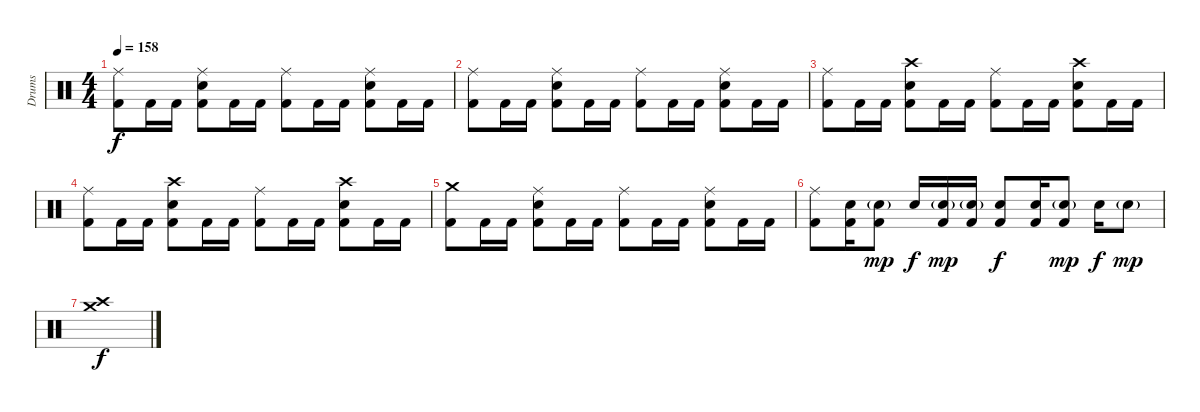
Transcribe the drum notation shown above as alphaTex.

\track ("Drums" "Drums") {instrument percussion}
\staff {score}
\articulation defaults
\ts (4 4)
\tempo 158
\clef neutral
\ks c
("Ride (middle)" "Kick (hit) 2").8{dy f} "Kick (hit) 2".16 "Kick (hit) 2".16 ("Ride (middle)" "Electric Snare (hit)" "Kick (hit) 2").8 "Kick (hit) 2".16 "Kick (hit) 2".16 ("Ride (middle)" "Kick (hit) 2").8 "Kick (hit) 2".16 "Kick (hit) 2".16 ("Ride (middle)" "Electric Snare (hit)" "Kick (hit) 2").8 "Kick (hit) 2".16 "Kick (hit) 2".16 |
("Ride (middle)" "Kick (hit) 2").8 "Kick (hit) 2".16 "Kick (hit) 2".16 ("Ride (middle)" "Electric Snare (hit)" "Kick (hit) 2").8 "Kick (hit) 2".16 "Kick (hit) 2".16 ("Ride (middle)" "Kick (hit) 2").8 "Kick (hit) 2".16 "Kick (hit) 2".16 ("Ride (middle)" "Electric Snare (hit)" "Kick (hit) 2").8 "Kick (hit) 2".16 "Kick (hit) 2".16 |
("Ride (middle)" "Kick (hit) 2").8 "Kick (hit) 2".16 "Kick (hit) 2".16 ("Crash high (hit)" "Electric Snare (hit)" "Kick (hit) 2").8 "Kick (hit) 2".16 "Kick (hit) 2".16 ("Ride (middle)" "Kick (hit) 2").8 "Kick (hit) 2".16 "Kick (hit) 2".16 ("Crash high (hit)" "Electric Snare (hit)" "Kick (hit) 2").8 "Kick (hit) 2".16 "Kick (hit) 2".16 |
("Ride (middle)" "Kick (hit) 2").8 "Kick (hit) 2".16 "Kick (hit) 2".16 ("Crash high (hit)" "Electric Snare (hit)" "Kick (hit) 2").8 "Kick (hit) 2".16 "Kick (hit) 2".16 ("Ride (middle)" "Kick (hit) 2").8 "Kick (hit) 2".16 "Kick (hit) 2".16 ("Crash high (hit)" "Electric Snare (hit)" "Kick (hit) 2").8 "Kick (hit) 2".16 "Kick (hit) 2".16 |
("Crash medium (hit)" "Kick (hit) 2").8 "Kick (hit) 2".16 "Kick (hit) 2".16 ("Ride (middle)" "Electric Snare (hit)" "Kick (hit) 2").8 "Kick (hit) 2".16 "Kick (hit) 2".16 ("Ride (middle)" "Kick (hit) 2").8 "Kick (hit) 2".16 "Kick (hit) 2".16 ("Ride (middle)" "Electric Snare (hit)" "Kick (hit) 2").8 "Kick (hit) 2".16 "Kick (hit) 2".16 |
("Ride (middle)" "Kick (hit) 2").8 ("Electric Snare (hit)" "Kick (hit) 2").16 ("Electric Snare (hit)"{g} "Kick (hit) 2").8{dy mp} "Electric Snare (hit)".16{dy f} ("Electric Snare (hit)"{g} "Kick (hit) 2").16{dy mp} ("Electric Snare (hit)"{g} "Kick (hit) 2").16 ("Electric Snare (hit)" "Kick (hit) 2").8{dy f} ("Electric Snare (hit)" "Kick (hit) 2").16 ("Electric Snare (hit)"{g} "Kick (hit) 2").8{dy mp} "Electric Snare (hit)".16{dy f} "Electric Snare (hit)"{g}.8{dy mp} |
\section ("" "")
("Crash medium (hit)" "Crash high (hit)").1{dy f}
